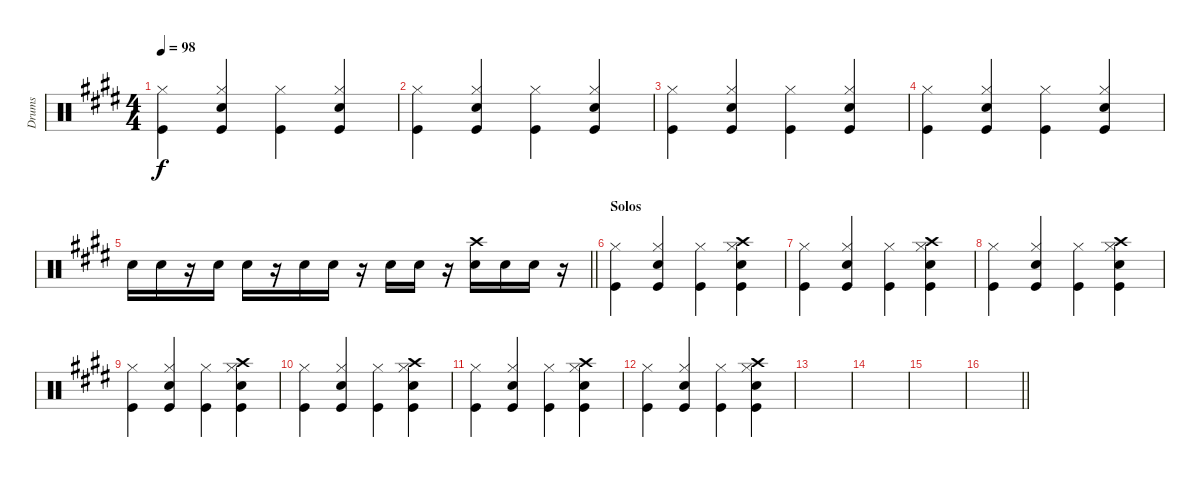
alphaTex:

\track ("Drums" "Drums") {instrument percussion}
\staff {score}
\articulation defaults
\ts (4 4)
\tempo 98
\clef neutral
\ks c#minor
("Kick (hit)" "Hi-Hat (closed)").4{dy f} ("Kick (hit)" "Snare (hit) 2" "Hi-Hat (closed)").4 ("Kick (hit)" "Hi-Hat (closed)").4 ("Kick (hit)" "Snare (hit) 2" "Hi-Hat (closed)").4 |
("Kick (hit)" "Hi-Hat (closed)").4 ("Kick (hit)" "Snare (hit) 2" "Hi-Hat (closed)").4 ("Kick (hit)" "Hi-Hat (closed)").4 ("Kick (hit)" "Snare (hit) 2" "Hi-Hat (closed)").4 |
("Kick (hit)" "Hi-Hat (closed)").4 ("Kick (hit)" "Snare (hit) 2" "Hi-Hat (closed)").4 ("Kick (hit)" "Hi-Hat (closed)").4 ("Kick (hit)" "Snare (hit) 2" "Hi-Hat (closed)").4 |
("Kick (hit)" "Hi-Hat (closed)").4 ("Kick (hit)" "Snare (hit) 2" "Hi-Hat (closed)").4 ("Kick (hit)" "Hi-Hat (closed)").4 ("Kick (hit)" "Snare (hit) 2" "Hi-Hat (closed)").4 |
\barLineRight lightlight "Snare (hit) 2".16 "Snare (hit) 2".16
r.16 "Snare (hit) 2".16 "Snare (hit) 2".16 r.16 "Snare (hit) 2".16 "Snare (hit) 2".16 r.16 "Snare (hit) 2".16 "Snare (hit) 2".16 r.16 ("Snare (hit) 2" "Crash high (hit)").16 "Snare (hit) 2".16 "Snare (hit) 2".16 r.16 |
\section ("" "Solos")
("Kick (hit)" "Hi-Hat (closed)").4 ("Kick (hit)" "Snare (hit) 2" "Hi-Hat (closed)").4 ("Kick (hit)" "Hi-Hat (closed)").4 ("Kick (hit)" "Snare (hit) 2" "Hi-Hat (closed)" "Crash high (hit)").4 |
("Kick (hit)" "Hi-Hat (closed)").4 ("Kick (hit)" "Snare (hit) 2" "Hi-Hat (closed)").4 ("Kick (hit)" "Hi-Hat (closed)").4 ("Kick (hit)" "Snare (hit) 2" "Hi-Hat (closed)" "Crash high (hit)").4 |
("Kick (hit)" "Hi-Hat (closed)").4 ("Kick (hit)" "Snare (hit) 2" "Hi-Hat (closed)").4 ("Kick (hit)" "Hi-Hat (closed)").4 ("Kick (hit)" "Snare (hit) 2" "Hi-Hat (closed)" "Crash high (hit)").4 |
("Kick (hit)" "Hi-Hat (closed)").4 ("Kick (hit)" "Snare (hit) 2" "Hi-Hat (closed)").4 ("Kick (hit)" "Hi-Hat (closed)").4 ("Kick (hit)" "Snare (hit) 2" "Hi-Hat (closed)" "Crash high (hit)").4 |
("Kick (hit)" "Hi-Hat (closed)").4 ("Kick (hit)" "Snare (hit) 2" "Hi-Hat (closed)").4 ("Kick (hit)" "Hi-Hat (closed)").4 ("Kick (hit)" "Snare (hit) 2" "Hi-Hat (closed)" "Crash high (hit)").4 |
("Kick (hit)" "Hi-Hat (closed)").4 ("Kick (hit)" "Snare (hit) 2" "Hi-Hat (closed)").4 ("Kick (hit)" "Hi-Hat (closed)").4 ("Kick (hit)" "Snare (hit) 2" "Hi-Hat (closed)" "Crash high (hit)").4 |
("Kick (hit)" "Hi-Hat (closed)").4 ("Kick (hit)" "Snare (hit) 2" "Hi-Hat (closed)").4 ("Kick (hit)" "Hi-Hat (closed)").4 ("Kick (hit)" "Snare (hit) 2" "Hi-Hat (closed)" "Crash high (hit)").4 |
|
|
|
\barLineRight lightlight
